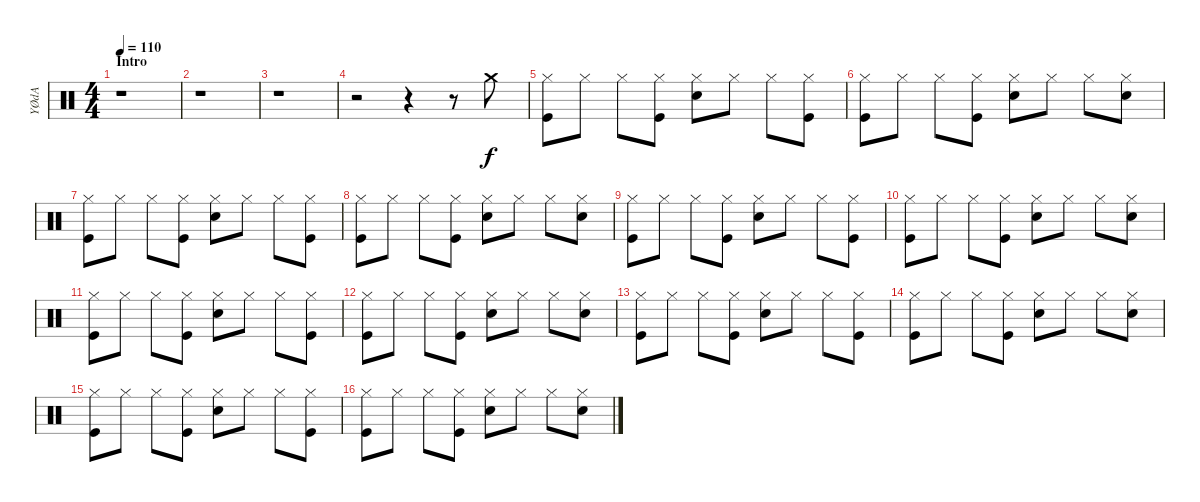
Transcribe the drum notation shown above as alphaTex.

\track ("YØdA" "YØdA") {instrument percussion}
\staff {score}
\articulation defaults
\ts (4 4)
\section ("" "Intro")
\tempo 110
\clef neutral
\ks c
r.1{dy f} |
r.1 |
r.1 |
r.2 r.4 r.8 "Crash medium (hit)".8 |
("Hi-Hat (closed)" "Kick (hit)").8 "Hi-Hat (closed)".8 "Hi-Hat (closed)".8 ("Hi-Hat (closed)" "Kick (hit)").8 ("Hi-Hat (closed)" "Electric Snare (hit)").8 "Hi-Hat (closed)".8 "Hi-Hat (closed)".8 ("Hi-Hat (closed)" "Kick (hit)").8 |
("Hi-Hat (closed)" "Kick (hit)").8 "Hi-Hat (closed)".8 "Hi-Hat (closed)".8 ("Hi-Hat (closed)" "Kick (hit)").8 ("Hi-Hat (closed)" "Electric Snare (hit)").8 "Hi-Hat (closed)".8 "Hi-Hat (closed)".8 ("Hi-Hat (closed)" "Electric Snare (hit)").8 |
("Hi-Hat (closed)" "Kick (hit)").8 "Hi-Hat (closed)".8 "Hi-Hat (closed)".8 ("Hi-Hat (closed)" "Kick (hit)").8 ("Hi-Hat (closed)" "Electric Snare (hit)").8 "Hi-Hat (closed)".8 "Hi-Hat (closed)".8 ("Hi-Hat (closed)" "Kick (hit)").8 |
("Hi-Hat (closed)" "Kick (hit)").8 "Hi-Hat (closed)".8 "Hi-Hat (closed)".8 ("Hi-Hat (closed)" "Kick (hit)").8 ("Hi-Hat (closed)" "Electric Snare (hit)").8 "Hi-Hat (closed)".8 "Hi-Hat (closed)".8 ("Hi-Hat (closed)" "Electric Snare (hit)").8 |
("Hi-Hat (closed)" "Kick (hit)").8 "Hi-Hat (closed)".8 "Hi-Hat (closed)".8 ("Hi-Hat (closed)" "Kick (hit)").8 ("Hi-Hat (closed)" "Electric Snare (hit)").8 "Hi-Hat (closed)".8 "Hi-Hat (closed)".8 ("Hi-Hat (closed)" "Kick (hit)").8 |
("Hi-Hat (closed)" "Kick (hit)").8 "Hi-Hat (closed)".8 "Hi-Hat (closed)".8 ("Hi-Hat (closed)" "Kick (hit)").8 ("Hi-Hat (closed)" "Electric Snare (hit)").8 "Hi-Hat (closed)".8 "Hi-Hat (closed)".8 ("Hi-Hat (closed)" "Electric Snare (hit)").8 |
("Hi-Hat (closed)" "Kick (hit)").8 "Hi-Hat (closed)".8 "Hi-Hat (closed)".8 ("Hi-Hat (closed)" "Kick (hit)").8 ("Hi-Hat (closed)" "Electric Snare (hit)").8 "Hi-Hat (closed)".8 "Hi-Hat (closed)".8 ("Hi-Hat (closed)" "Kick (hit)").8 |
("Hi-Hat (closed)" "Kick (hit)").8 "Hi-Hat (closed)".8 "Hi-Hat (closed)".8 ("Hi-Hat (closed)" "Kick (hit)").8 ("Hi-Hat (closed)" "Electric Snare (hit)").8 "Hi-Hat (closed)".8 "Hi-Hat (closed)".8 ("Hi-Hat (closed)" "Electric Snare (hit)").8 |
("Hi-Hat (closed)" "Kick (hit)").8 "Hi-Hat (closed)".8 "Hi-Hat (closed)".8 ("Hi-Hat (closed)" "Kick (hit)").8 ("Hi-Hat (closed)" "Electric Snare (hit)").8 "Hi-Hat (closed)".8 "Hi-Hat (closed)".8 ("Hi-Hat (closed)" "Kick (hit)").8 |
("Hi-Hat (closed)" "Kick (hit)").8 "Hi-Hat (closed)".8 "Hi-Hat (closed)".8 ("Hi-Hat (closed)" "Kick (hit)").8 ("Hi-Hat (closed)" "Electric Snare (hit)").8 "Hi-Hat (closed)".8 "Hi-Hat (closed)".8 ("Hi-Hat (closed)" "Electric Snare (hit)").8 |
("Hi-Hat (closed)" "Kick (hit)").8 "Hi-Hat (closed)".8 "Hi-Hat (closed)".8 ("Hi-Hat (closed)" "Kick (hit)").8 ("Hi-Hat (closed)" "Electric Snare (hit)").8 "Hi-Hat (closed)".8 "Hi-Hat (closed)".8 ("Hi-Hat (closed)" "Kick (hit)").8 |
("Hi-Hat (closed)" "Kick (hit)").8 "Hi-Hat (closed)".8 "Hi-Hat (closed)".8 ("Hi-Hat (closed)" "Kick (hit)").8 ("Hi-Hat (closed)" "Electric Snare (hit)").8 "Hi-Hat (closed)".8 "Hi-Hat (closed)".8 ("Hi-Hat (closed)" "Electric Snare (hit)").8
